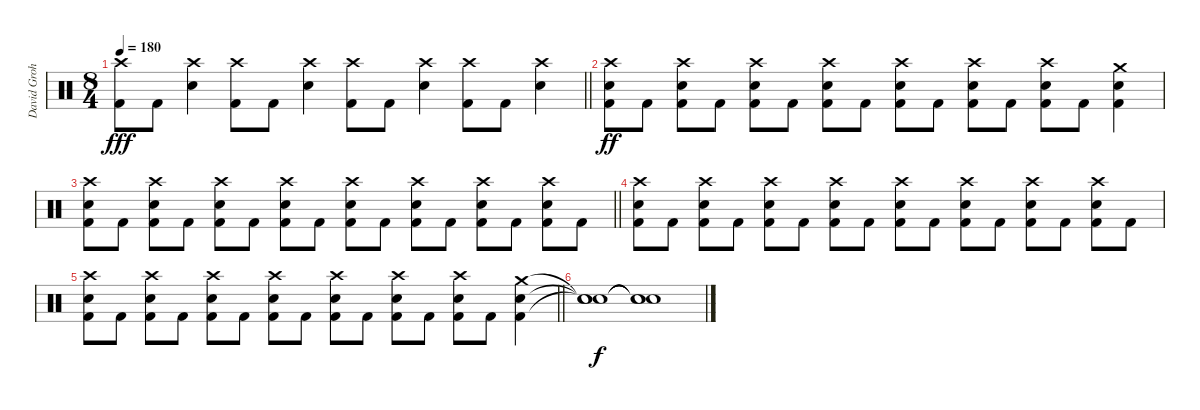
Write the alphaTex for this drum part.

\track ("David Grohl" "David Groh") {instrument percussion}
\staff {score}
\articulation defaults
\ts (8 4)
\tempo 180
\clef neutral
\barLineRight lightlight
\ks c
("Crash high (hit)" "Kick (hit) 2").8{dy fff} "Kick (hit) 2".8 ("Crash high (hit)" "Electric Snare (hit)").4 ("Crash high (hit)" "Kick (hit) 2").8 "Kick (hit) 2".8 ("Crash high (hit)" "Electric Snare (hit)").4 ("Crash high (hit)" "Kick (hit) 2").8 "Kick (hit) 2".8 ("Crash high (hit)" "Electric Snare (hit)").4 ("Crash high (hit)" "Kick (hit) 2").8 "Kick (hit) 2".8 ("Crash high (hit)" "Electric Snare (hit)").4 |
("Crash high (hit)" "Electric Snare (hit)" "Kick (hit) 2").8{dy ff} "Kick (hit) 2".8 ("Crash high (hit)" "Electric Snare (hit)" "Kick (hit) 2").8 "Kick (hit) 2".8 ("Crash high (hit)" "Electric Snare (hit)" "Kick (hit) 2").8 "Kick (hit) 2".8 ("Crash high (hit)" "Electric Snare (hit)" "Kick (hit) 2").8 "Kick (hit) 2".8 ("Crash high (hit)" "Electric Snare (hit)" "Kick (hit) 2").8 "Kick (hit) 2".8 ("Crash high (hit)" "Electric Snare (hit)" "Kick (hit) 2").8 "Kick (hit) 2".8 ("Crash high (hit)" "Electric Snare (hit)" "Kick (hit) 2").8 "Kick (hit) 2".8 ("Crash medium (hit)" "Electric Snare (hit)" "Kick (hit) 2").4 |
\barLineRight lightlight
("Crash high (hit)" "Electric Snare (hit)" "Kick (hit) 2").8 "Kick (hit) 2".8 ("Crash high (hit)" "Electric Snare (hit)" "Kick (hit) 2").8 "Kick (hit) 2".8 ("Crash high (hit)" "Electric Snare (hit)" "Kick (hit) 2").8 "Kick (hit) 2".8 ("Crash high (hit)" "Electric Snare (hit)" "Kick (hit) 2").8 "Kick (hit) 2".8 ("Crash high (hit)" "Electric Snare (hit)" "Kick (hit) 2").8 "Kick (hit) 2".8 ("Crash high (hit)" "Electric Snare (hit)" "Kick (hit) 2").8 "Kick (hit) 2".8 ("Crash high (hit)" "Electric Snare (hit)" "Kick (hit) 2").8 "Kick (hit) 2".8 ("Crash high (hit)" "Electric Snare (hit)" "Kick (hit) 2").8 "Kick (hit) 2".8 |
("Crash high (hit)" "Electric Snare (hit)" "Kick (hit) 2").8 "Kick (hit) 2".8 ("Crash high (hit)" "Electric Snare (hit)" "Kick (hit) 2").8 "Kick (hit) 2".8 ("Crash high (hit)" "Electric Snare (hit)" "Kick (hit) 2").8 "Kick (hit) 2".8 ("Crash high (hit)" "Electric Snare (hit)" "Kick (hit) 2").8 "Kick (hit) 2".8 ("Crash high (hit)" "Electric Snare (hit)" "Kick (hit) 2").8 "Kick (hit) 2".8 ("Crash high (hit)" "Electric Snare (hit)" "Kick (hit) 2").8 "Kick (hit) 2".8 ("Crash high (hit)" "Electric Snare (hit)" "Kick (hit) 2").8 "Kick (hit) 2".8 ("Crash high (hit)" "Electric Snare (hit)" "Kick (hit) 2").8 "Kick (hit) 2".8 |
\barLineRight lightlight
("Crash high (hit)" "Electric Snare (hit)" "Kick (hit) 2").8 "Kick (hit) 2".8 ("Crash high (hit)" "Electric Snare (hit)" "Kick (hit) 2").8 "Kick (hit) 2".8 ("Crash high (hit)" "Electric Snare (hit)" "Kick (hit) 2").8 "Kick (hit) 2".8 ("Crash high (hit)" "Electric Snare (hit)" "Kick (hit) 2").8 "Kick (hit) 2".8 ("Crash high (hit)" "Electric Snare (hit)" "Kick (hit) 2").8 "Kick (hit) 2".8 ("Crash high (hit)" "Electric Snare (hit)" "Kick (hit) 2").8 "Kick (hit) 2".8 ("Crash high (hit)" "Electric Snare (hit)" "Kick (hit) 2").8 "Kick (hit) 2".8 ("Crash medium (hit)" "Electric Snare (hit)" "Kick (hit) 2").4 |
("Snare (hit)"{t} "Snare (hit)"{t} "Snare (hit)"{t}).1{dy f} ("Snare (hit)"{t} "Snare (hit)"{t} "Snare (hit)"{t}).1
